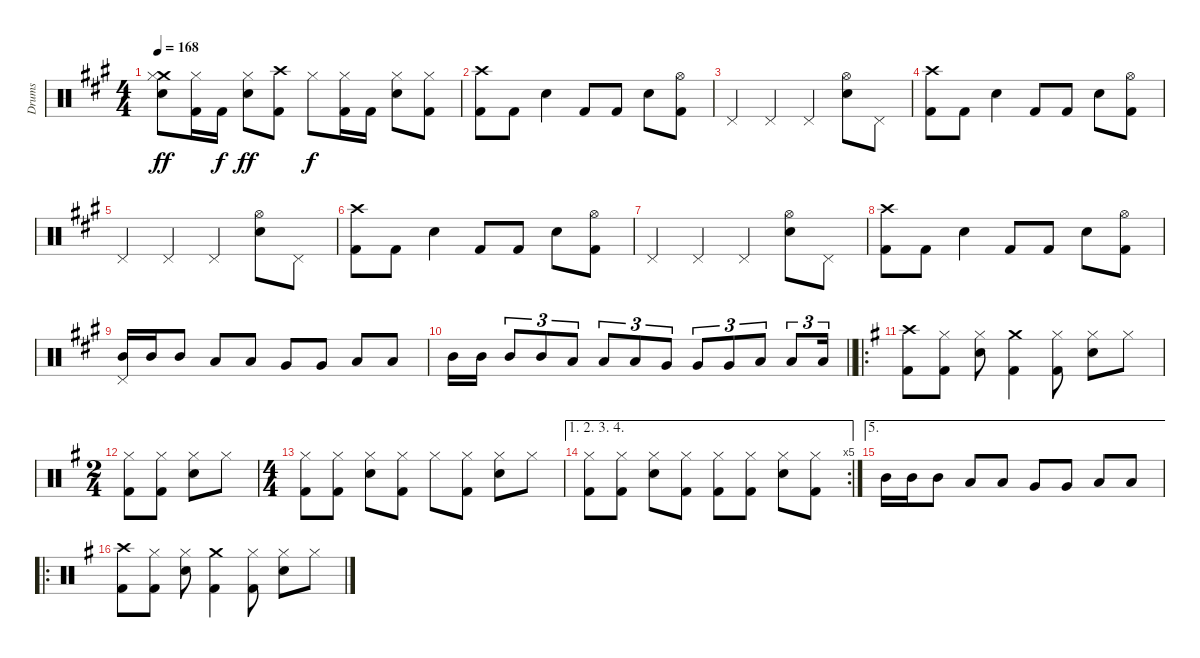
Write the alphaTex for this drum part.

\track ("Drums" "Drums") {instrument percussion}
\staff {score}
\articulation defaults
\ts (4 4)
\tempo 168
\clef neutral
\ks a
("Crash medium (hit)" "Hi-Hat (closed)" "Snare (hit) 2").8{dy ff} ("Hi-Hat (closed)" "Kick (hit) 2").16 "Kick (hit) 2".16{dy f} ("Hi-Hat (closed)" "Snare (hit) 2").8{dy ff} ("Crash high (hit)" "Kick (hit) 2").8 "Hi-Hat (closed)".8{dy f} ("Hi-Hat (closed)" "Kick (hit) 2").16 "Kick (hit) 2".16 ("Hi-Hat (closed)" "Snare (hit) 2").8 ("Hi-Hat (closed)" "Kick (hit) 2").8 |
("Crash high (hit)" "Kick (hit) 2").8 "Kick (hit) 2".8 "Snare (hit) 2".4 "Kick (hit) 2".8 "Kick (hit) 2".8 "Snare (hit) 2".8 ("Hi-Hat (open)" "Kick (hit) 2").8 |
"Pedal Hi-Hat (hit)".4 "Pedal Hi-Hat (hit)".4 "Pedal Hi-Hat (hit)".4 ("Hi-Hat (open)" "Snare (hit) 2").8 "Pedal Hi-Hat (hit)".8 |
("Crash high (hit)" "Kick (hit) 2").8 "Kick (hit) 2".8 "Snare (hit) 2".4 "Kick (hit) 2".8 "Kick (hit) 2".8 "Snare (hit) 2".8 ("Hi-Hat (open)" "Kick (hit) 2").8 |
"Pedal Hi-Hat (hit)".4 "Pedal Hi-Hat (hit)".4 "Pedal Hi-Hat (hit)".4 ("Hi-Hat (open)" "Snare (hit) 2").8 "Pedal Hi-Hat (hit)".8 |
("Crash high (hit)" "Kick (hit) 2").8 "Kick (hit) 2".8 "Snare (hit) 2".4 "Kick (hit) 2".8 "Kick (hit) 2".8 "Snare (hit) 2".8 ("Hi-Hat (open)" "Kick (hit) 2").8 |
"Pedal Hi-Hat (hit)".4 "Pedal Hi-Hat (hit)".4 "Pedal Hi-Hat (hit)".4 ("Hi-Hat (open)" "Snare (hit) 2").8 "Pedal Hi-Hat (hit)".8 |
("Crash high (hit)" "Kick (hit) 2").8 "Kick (hit) 2".8 "Snare (hit) 2".4 "Kick (hit) 2".8 "Kick (hit) 2".8 "Snare (hit) 2".8 ("Hi-Hat (open)" "Kick (hit) 2").8 |
("Pedal Hi-Hat (hit)" "Mid Tom (hit)").16 "Mid Tom (hit)".16 "Mid Tom (hit)".8 "Low Tom (hit)".8 "Low Tom (hit)".8 "Very Low Tom (hit)".8 "Very Low Tom (hit)".8 "Low Floor Tom (hit)".8 "Low Floor Tom (hit)".8 |
\barLineRight lightlight "Mid Tom (hit)".16 "Mid Tom (hit)".16 "Mid Tom (hit)".8{tu (3 2)} "Mid Tom (hit)".8{tu (3 2)} "Low Tom (hit)".8{tu (3 2)} "Low Tom (hit)".8{tu (3 2)} "Low Tom (hit)".8{tu (3 2)} "Very Low Tom (hit)".8{tu (3 2)} "Very Low Tom (hit)".8{tu (3 2)} "Very Low Tom (hit)".8{tu (3 2)} "Low Floor Tom (hit)".8{tu (3 2)} "Low Floor Tom (hit)".8{tu (3 2)} "Low Floor Tom (hit)".16{tu (3 2)}
|
\ro
\ks g
("Crash high (hit)" "Kick (hit) 2").8 ("Hi-Hat (closed)" "Kick (hit) 2").8 ("Hi-Hat (closed)" "Snare (hit) 2").8 ("Crash medium (hit)" "Kick (hit) 2").4 ("Hi-Hat (closed)" "Kick (hit) 2").8 ("Hi-Hat (closed)" "Snare (hit) 2").8 "Hi-Hat (closed)".8 |
\ts (2 4)
("Hi-Hat (closed)" "Kick (hit) 2").8 ("Hi-Hat (closed)" "Kick (hit) 2").8 ("Hi-Hat (closed)" "Snare (hit) 2").8 "Hi-Hat (closed)".8 |
\ts (4 4)
("Hi-Hat (closed)" "Kick (hit) 2").8 ("Hi-Hat (closed)" "Kick (hit) 2").8 ("Hi-Hat (closed)" "Snare (hit) 2").8 ("Hi-Hat (closed)" "Kick (hit) 2").8 "Hi-Hat (closed)".8 ("Hi-Hat (closed)" "Kick (hit) 2").8 ("Hi-Hat (closed)" "Snare (hit) 2").8 "Hi-Hat (closed)".8 |
\ae (1 2 3 4)
\rc 5
("Hi-Hat (closed)" "Kick (hit) 2").8 ("Hi-Hat (closed)" "Kick (hit) 2").8 ("Hi-Hat (closed)" "Snare (hit) 2").8 ("Hi-Hat (closed)" "Kick (hit) 2").8 ("Hi-Hat (closed)" "Kick (hit) 2").8 ("Hi-Hat (closed)" "Kick (hit) 2").8 ("Hi-Hat (closed)" "Snare (hit) 2").8 ("Hi-Hat (closed)" "Kick (hit) 2").8 |
\ae 5 "Mid Tom (hit)".16 "Mid Tom (hit)".16 "Mid Tom (hit)".8 "Low Tom (hit)".8 "Low Tom (hit)".8 "Very Low Tom (hit)".8 "Very Low Tom (hit)".8 "Low Floor Tom (hit)".8 "Low Floor Tom (hit)".8
|
\ro
("Crash high (hit)" "Kick (hit) 2").8 ("Hi-Hat (closed)" "Kick (hit) 2").8 ("Hi-Hat (closed)" "Snare (hit) 2").8 ("Crash medium (hit)" "Kick (hit) 2").4 ("Hi-Hat (closed)" "Kick (hit) 2").8 ("Hi-Hat (closed)" "Snare (hit) 2").8 "Hi-Hat (closed)".8
